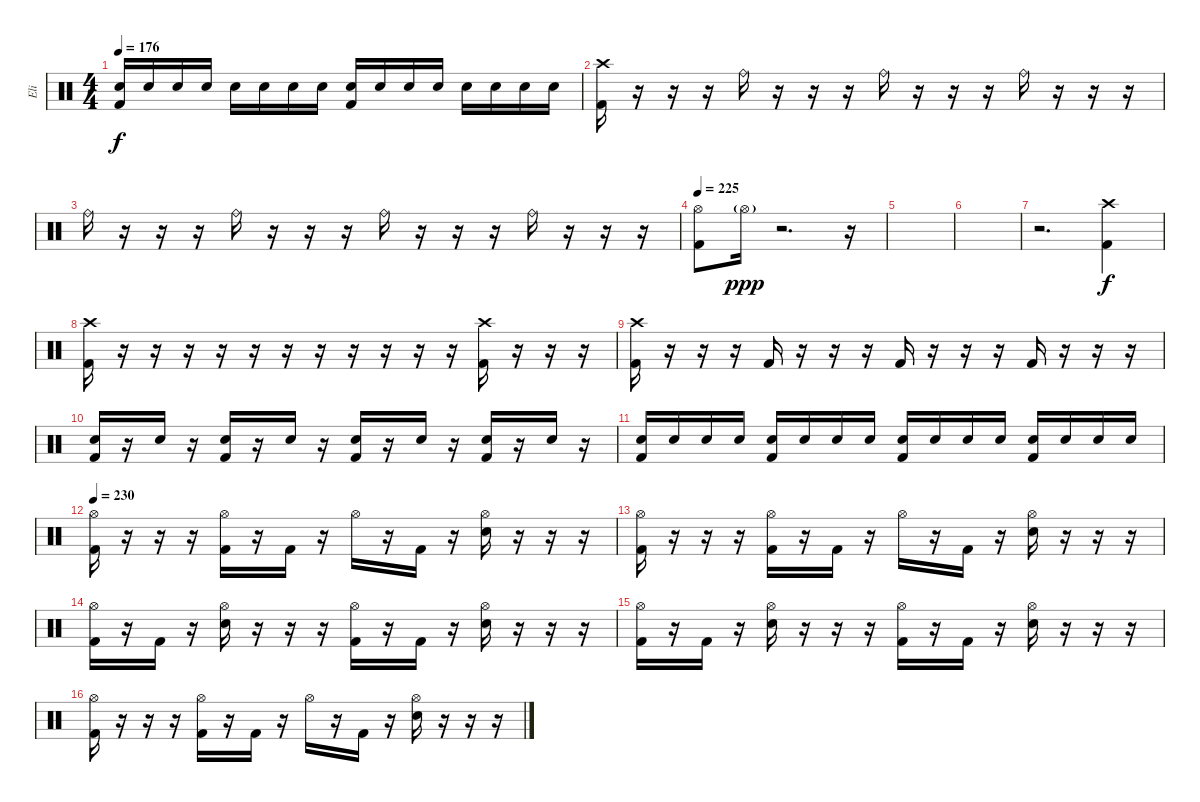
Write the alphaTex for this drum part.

\track ("Eli" "Eli") {instrument percussion}
\staff {score}
\articulation defaults
\ts (4 4)
\tempo 176
\clef neutral
\ks c
("Snare (hit) 2" "Kick (hit) 2").16{dy f} "Snare (hit) 2".16 "Snare (hit) 2".16 "Snare (hit) 2".16 "Snare (hit) 2".16 "Snare (hit) 2".16 "Snare (hit) 2".16 "Snare (hit) 2".16 ("Snare (hit) 2" "Kick (hit) 2").16 "Snare (hit) 2".16 "Snare (hit) 2".16 "Snare (hit) 2".16 "Snare (hit) 2".16 "Snare (hit) 2".16 "Snare (hit) 2".16 "Snare (hit) 2".16 |
("Crash high (hit)" "Kick (hit) 2").16 r.16 r.16 r.16 "Ride (bell)".16 r.16 r.16 r.16 "Ride (bell)".16 r.16 r.16 r.16 "Ride (bell)".16 r.16 r.16 r.16 |
"Ride (bell)".16 r.16 r.16 r.16 "Ride (bell)".16 r.16 r.16 r.16 "Ride (bell)".16 r.16 r.16 r.16 "Ride (bell)".16 r.16 r.16 r.16 |
\tempo 225
("Hi-Hat (open)" "Kick (hit) 2").8 "Hi-Hat (open)"{g}.16{dy ppp} r.2{d} r.16 |
|
|
r.2{d} ("Crash high (hit)" "Kick (hit) 2").4{dy f} |
("Crash high (hit)" "Kick (hit) 2").16 r.16 r.16 r.16 r.16 r.16 r.16 r.16 r.16 r.16 r.16 r.16 ("Crash high (hit)" "Kick (hit) 2").16 r.16 r.16 r.16 |
("Crash high (hit)" "Kick (hit) 2").16 r.16 r.16 r.16 "Kick (hit) 2".16 r.16 r.16 r.16 "Kick (hit) 2".16 r.16 r.16 r.16 "Kick (hit) 2".16 r.16 r.16 r.16 |
("Snare (hit) 2" "Kick (hit) 2").16 r.16 "Snare (hit) 2".16 r.16 ("Snare (hit) 2" "Kick (hit) 2").16 r.16 "Snare (hit) 2".16 r.16 ("Snare (hit) 2" "Kick (hit) 2").16 r.16 "Snare (hit) 2".16 r.16 ("Snare (hit) 2" "Kick (hit) 2").16 r.16 "Snare (hit) 2".16 r.16 |
("Snare (hit) 2" "Kick (hit) 2").16 "Snare (hit) 2".16 "Snare (hit) 2".16 "Snare (hit) 2".16 ("Snare (hit) 2" "Kick (hit) 2").16 "Snare (hit) 2".16 "Snare (hit) 2".16 "Snare (hit) 2".16 ("Snare (hit) 2" "Kick (hit) 2").16 "Snare (hit) 2".16 "Snare (hit) 2".16 "Snare (hit) 2".16 ("Snare (hit) 2" "Kick (hit) 2").16 "Snare (hit) 2".16 "Snare (hit) 2".16 "Snare (hit) 2".16 |
\tempo 230
("Hi-Hat (open)" "Kick (hit) 2").16 r.16 r.16 r.16 ("Hi-Hat (open)" "Kick (hit) 2").16 r.16 "Kick (hit) 2".16 r.16 "Hi-Hat (open)".16 r.16 "Kick (hit) 2".16 r.16 ("Hi-Hat (open)" "Snare (hit) 2").16 r.16 r.16 r.16 |
("Hi-Hat (open)" "Kick (hit) 2").16 r.16 r.16 r.16 ("Hi-Hat (open)" "Kick (hit) 2").16 r.16 "Kick (hit) 2".16 r.16 "Hi-Hat (open)".16 r.16 "Kick (hit) 2".16 r.16 ("Hi-Hat (open)" "Snare (hit) 2").16 r.16 r.16 r.16 |
("Hi-Hat (open)" "Kick (hit) 2").16 r.16 "Kick (hit) 2".16 r.16 ("Hi-Hat (open)" "Snare (hit) 2").16 r.16 r.16 r.16 ("Hi-Hat (open)" "Kick (hit) 2").16 r.16 "Kick (hit) 2".16 r.16 ("Hi-Hat (open)" "Snare (hit) 2").16 r.16 r.16 r.16 |
("Hi-Hat (open)" "Kick (hit) 2").16 r.16 "Kick (hit) 2".16 r.16 ("Hi-Hat (open)" "Snare (hit) 2").16 r.16 r.16 r.16 ("Hi-Hat (open)" "Kick (hit) 2").16 r.16 "Kick (hit) 2".16 r.16 ("Hi-Hat (open)" "Snare (hit) 2").16 r.16 r.16 r.16 |
("Hi-Hat (open)" "Kick (hit) 2").16 r.16 r.16 r.16 ("Hi-Hat (open)" "Kick (hit) 2").16 r.16 "Kick (hit) 2".16 r.16 "Hi-Hat (open)".16 r.16 "Kick (hit) 2".16 r.16 ("Hi-Hat (open)" "Snare (hit) 2").16 r.16 r.16 r.16
